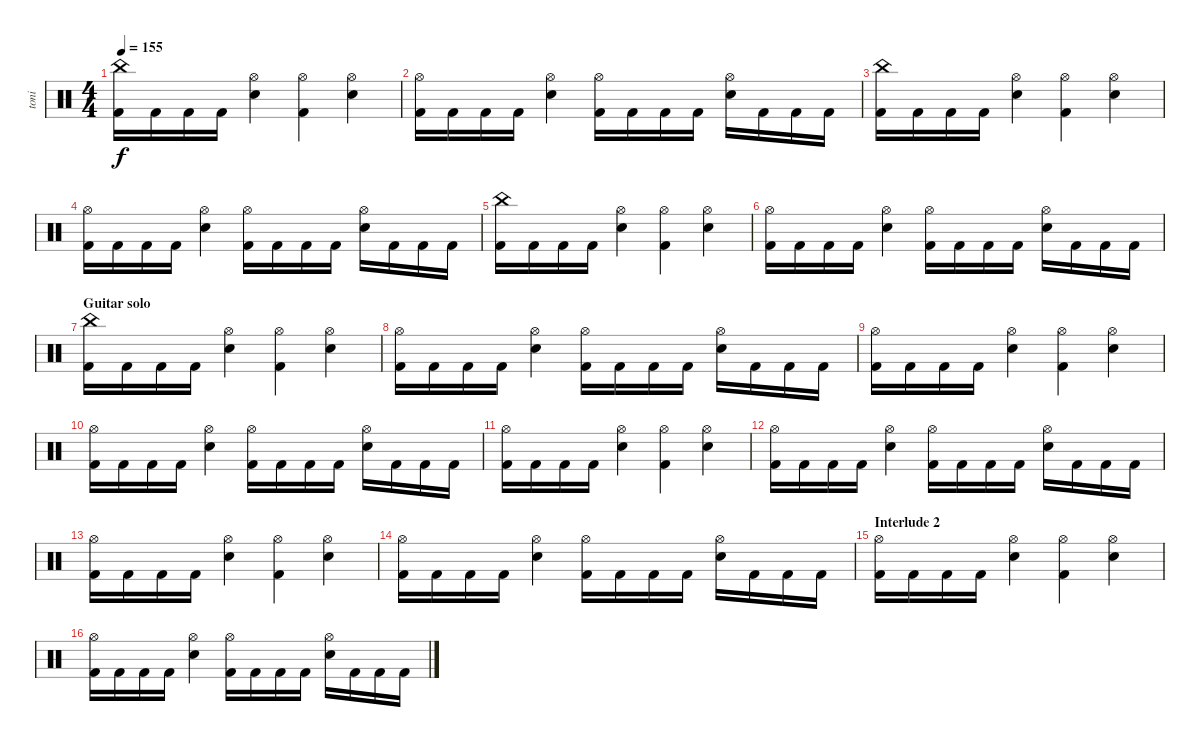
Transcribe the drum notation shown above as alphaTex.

\track ("toni" "toni") {instrument percussion}
\staff {score}
\articulation defaults
\ts (4 4)
\tempo 155
\clef neutral
\ks c
("China (hit)" "Kick (hit) 2").16{dy f} "Kick (hit) 2".16 "Kick (hit) 2".16 "Kick (hit) 2".16 ("Hi-Hat (open)" "Snare (hit) 2").4 ("Hi-Hat (open)" "Kick (hit) 2").4 ("Hi-Hat (open)" "Snare (hit) 2").4 |
("Hi-Hat (open)" "Kick (hit) 2").16 "Kick (hit) 2".16 "Kick (hit) 2".16 "Kick (hit) 2".16 ("Hi-Hat (open)" "Snare (hit) 2").4 ("Hi-Hat (open)" "Kick (hit) 2").16 "Kick (hit) 2".16 "Kick (hit) 2".16 "Kick (hit) 2".16 ("Hi-Hat (open)" "Snare (hit) 2").16 "Kick (hit) 2".16 "Kick (hit) 2".16 "Kick (hit) 2".16 |
("China (hit)" "Kick (hit) 2").16 "Kick (hit) 2".16 "Kick (hit) 2".16 "Kick (hit) 2".16 ("Hi-Hat (open)" "Snare (hit) 2").4 ("Hi-Hat (open)" "Kick (hit) 2").4 ("Hi-Hat (open)" "Snare (hit) 2").4 |
("Hi-Hat (open)" "Kick (hit) 2").16 "Kick (hit) 2".16 "Kick (hit) 2".16 "Kick (hit) 2".16 ("Hi-Hat (open)" "Snare (hit) 2").4 ("Hi-Hat (open)" "Kick (hit) 2").16 "Kick (hit) 2".16 "Kick (hit) 2".16 "Kick (hit) 2".16 ("Hi-Hat (open)" "Snare (hit) 2").16 "Kick (hit) 2".16 "Kick (hit) 2".16 "Kick (hit) 2".16 |
("China (hit)" "Kick (hit) 2").16 "Kick (hit) 2".16 "Kick (hit) 2".16 "Kick (hit) 2".16 ("Hi-Hat (open)" "Snare (hit) 2").4 ("Hi-Hat (open)" "Kick (hit) 2").4 ("Hi-Hat (open)" "Snare (hit) 2").4 |
("Hi-Hat (open)" "Kick (hit) 2").16 "Kick (hit) 2".16 "Kick (hit) 2".16 "Kick (hit) 2".16 ("Hi-Hat (open)" "Snare (hit) 2").4 ("Hi-Hat (open)" "Kick (hit) 2").16 "Kick (hit) 2".16 "Kick (hit) 2".16 "Kick (hit) 2".16 ("Hi-Hat (open)" "Snare (hit) 2").16 "Kick (hit) 2".16 "Kick (hit) 2".16 "Kick (hit) 2".16 |
\section ("" "Guitar solo")
("China (hit)" "Kick (hit) 2").16 "Kick (hit) 2".16 "Kick (hit) 2".16 "Kick (hit) 2".16 ("Hi-Hat (open)" "Snare (hit) 2").4 ("Hi-Hat (open)" "Kick (hit) 2").4 ("Hi-Hat (open)" "Snare (hit) 2").4 |
("Hi-Hat (open)" "Kick (hit) 2").16 "Kick (hit) 2".16 "Kick (hit) 2".16 "Kick (hit) 2".16 ("Hi-Hat (open)" "Snare (hit) 2").4 ("Hi-Hat (open)" "Kick (hit) 2").16 "Kick (hit) 2".16 "Kick (hit) 2".16 "Kick (hit) 2".16 ("Hi-Hat (open)" "Snare (hit) 2").16 "Kick (hit) 2".16 "Kick (hit) 2".16 "Kick (hit) 2".16 |
("Hi-Hat (open)" "Kick (hit) 2").16 "Kick (hit) 2".16 "Kick (hit) 2".16 "Kick (hit) 2".16 ("Hi-Hat (open)" "Snare (hit) 2").4 ("Hi-Hat (open)" "Kick (hit) 2").4 ("Hi-Hat (open)" "Snare (hit) 2").4 |
("Hi-Hat (open)" "Kick (hit) 2").16 "Kick (hit) 2".16 "Kick (hit) 2".16 "Kick (hit) 2".16 ("Hi-Hat (open)" "Snare (hit) 2").4 ("Hi-Hat (open)" "Kick (hit) 2").16 "Kick (hit) 2".16 "Kick (hit) 2".16 "Kick (hit) 2".16 ("Hi-Hat (open)" "Snare (hit) 2").16 "Kick (hit) 2".16 "Kick (hit) 2".16 "Kick (hit) 2".16 |
("Hi-Hat (open)" "Kick (hit) 2").16 "Kick (hit) 2".16 "Kick (hit) 2".16 "Kick (hit) 2".16 ("Hi-Hat (open)" "Snare (hit) 2").4 ("Hi-Hat (open)" "Kick (hit) 2").4 ("Hi-Hat (open)" "Snare (hit) 2").4 |
("Hi-Hat (open)" "Kick (hit) 2").16 "Kick (hit) 2".16 "Kick (hit) 2".16 "Kick (hit) 2".16 ("Hi-Hat (open)" "Snare (hit) 2").4 ("Hi-Hat (open)" "Kick (hit) 2").16 "Kick (hit) 2".16 "Kick (hit) 2".16 "Kick (hit) 2".16 ("Hi-Hat (open)" "Snare (hit) 2").16 "Kick (hit) 2".16 "Kick (hit) 2".16 "Kick (hit) 2".16 |
("Hi-Hat (open)" "Kick (hit) 2").16 "Kick (hit) 2".16 "Kick (hit) 2".16 "Kick (hit) 2".16 ("Hi-Hat (open)" "Snare (hit) 2").4 ("Hi-Hat (open)" "Kick (hit) 2").4 ("Hi-Hat (open)" "Snare (hit) 2").4 |
("Hi-Hat (open)" "Kick (hit) 2").16 "Kick (hit) 2".16 "Kick (hit) 2".16 "Kick (hit) 2".16 ("Hi-Hat (open)" "Snare (hit) 2").4 ("Hi-Hat (open)" "Kick (hit) 2").16 "Kick (hit) 2".16 "Kick (hit) 2".16 "Kick (hit) 2".16 ("Hi-Hat (open)" "Snare (hit) 2").16 "Kick (hit) 2".16 "Kick (hit) 2".16 "Kick (hit) 2".16 |
\section ("" "Interlude 2")
("Hi-Hat (open)" "Kick (hit) 2").16 "Kick (hit) 2".16 "Kick (hit) 2".16 "Kick (hit) 2".16 ("Hi-Hat (open)" "Snare (hit) 2").4 ("Hi-Hat (open)" "Kick (hit) 2").4 ("Hi-Hat (open)" "Snare (hit) 2").4 |
("Hi-Hat (open)" "Kick (hit) 2").16 "Kick (hit) 2".16 "Kick (hit) 2".16 "Kick (hit) 2".16 ("Hi-Hat (open)" "Snare (hit) 2").4 ("Hi-Hat (open)" "Kick (hit) 2").16 "Kick (hit) 2".16 "Kick (hit) 2".16 "Kick (hit) 2".16 ("Hi-Hat (open)" "Snare (hit) 2").16 "Kick (hit) 2".16 "Kick (hit) 2".16 "Kick (hit) 2".16
